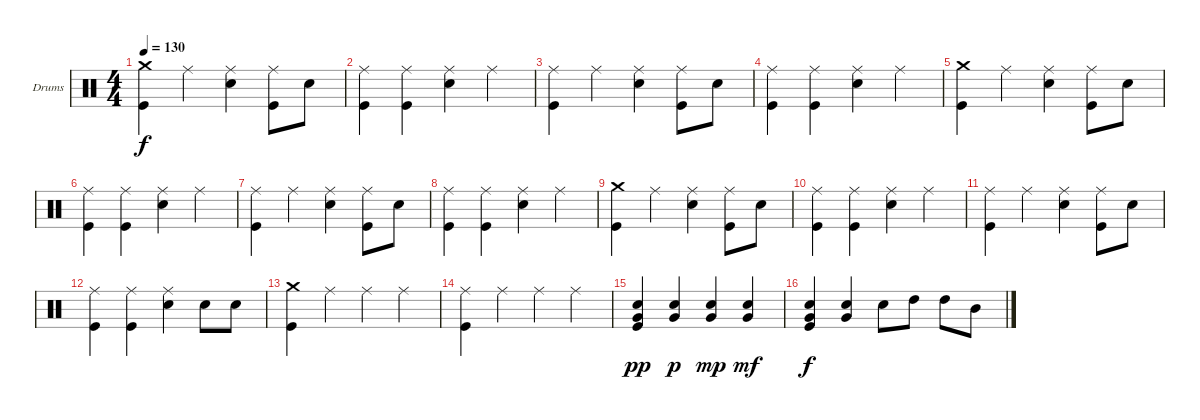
\bracketExtendMode groupsimilarinstruments
\firstSystemTrackNameOrientation horizontal
\otherSystemsTrackNameOrientation horizontal
\track ("Drumkit" "Drums") {instrument percussion}
\staff {score}
\articulation defaults
\ts (4 4)
\tempo 130
\clef neutral
\ks c
("Crash medium (hit)" "Kick (hit)").4{dy f} "Ride (middle)".4 ("Ride (middle)" "Snare (hit) 2").4 ("Ride (middle)" "Kick (hit)").8 "Snare (hit) 2".8 |
("Ride (middle)" "Kick (hit)").4 ("Ride (middle)" "Kick (hit)").4 ("Ride (middle)" "Snare (hit) 2").4 "Ride (middle)".4 |
("Ride (middle)" "Kick (hit)").4 "Ride (middle)".4 ("Ride (middle)" "Snare (hit) 2").4 ("Ride (middle)" "Kick (hit)").8 "Snare (hit) 2".8 |
("Ride (middle)" "Kick (hit)").4 ("Ride (middle)" "Kick (hit)").4 ("Ride (middle)" "Snare (hit) 2").4 "Ride (middle)".4 |
("Crash medium (hit)" "Kick (hit)").4 "Ride (middle)".4 ("Ride (middle)" "Snare (hit) 2").4 ("Ride (middle)" "Kick (hit)").8 "Snare (hit) 2".8 |
("Ride (middle)" "Kick (hit)").4 ("Ride (middle)" "Kick (hit)").4 ("Ride (middle)" "Snare (hit) 2").4 "Ride (middle)".4 |
("Ride (middle)" "Kick (hit)").4 "Ride (middle)".4 ("Ride (middle)" "Snare (hit) 2").4 ("Ride (middle)" "Kick (hit)").8 "Snare (hit) 2".8 |
("Ride (middle)" "Kick (hit)").4 ("Ride (middle)" "Kick (hit)").4 ("Ride (middle)" "Snare (hit) 2").4 "Ride (middle)".4 |
("Crash medium (hit)" "Kick (hit)").4 "Ride (middle)".4 ("Ride (middle)" "Snare (hit) 2").4 ("Ride (middle)" "Kick (hit)").8 "Snare (hit) 2".8 |
("Ride (middle)" "Kick (hit)").4 ("Ride (middle)" "Kick (hit)").4 ("Ride (middle)" "Snare (hit) 2").4 "Ride (middle)".4 |
("Ride (middle)" "Kick (hit)").4 "Ride (middle)".4 ("Ride (middle)" "Snare (hit) 2").4 ("Ride (middle)" "Kick (hit)").8 "Snare (hit) 2".8 |
("Ride (middle)" "Kick (hit)").4 ("Ride (middle)" "Kick (hit)").4 ("Ride (middle)" "Snare (hit) 2").4 "Snare (hit) 2".8 "Snare (hit) 2".8 |
("Crash medium (hit)" "Kick (hit)").4 "Ride (middle)".4 "Ride (middle)".4 "Ride (middle)".4 |
("Ride (middle)" "Kick (hit)").4 "Ride (middle)".4 "Ride (middle)".4 "Ride (middle)".4 |
("Very Low Tom (hit)" "Snare (hit) 2" "Kick (hit)").4{dy pp} ("Very Low Tom (hit)" "Snare (hit) 2").4{dy p} ("Very Low Tom (hit)" "Snare (hit) 2").4{dy mp} ("Very Low Tom (hit)" "Snare (hit) 2").4{dy mf} |
("Very Low Tom (hit)" "Snare (hit) 2" "Kick (hit)").4{dy f} ("Very Low Tom (hit)" "Snare (hit) 2").4 "Snare (hit) 2".8 "High Tom (hit)".8 "High Tom (hit)".8 "Mid Tom (hit)".8
